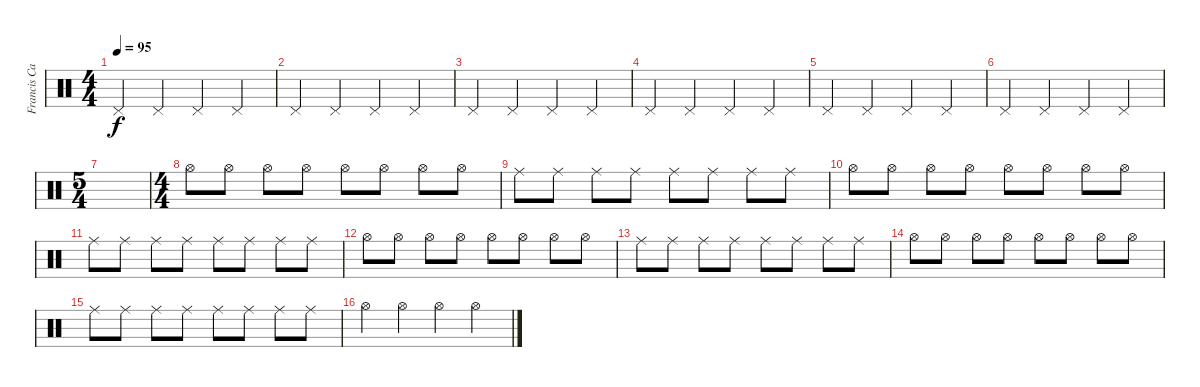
\track ("Francis Cassol 2" "Francis Ca") {instrument percussion}
\staff {score}
\articulation defaults
\ts (4 4)
\tempo 95
\clef neutral
\ks c "Pedal Hi-Hat (hit)".4{dy f} "Pedal Hi-Hat (hit)".4 "Pedal Hi-Hat (hit)".4 "Pedal Hi-Hat (hit)".4
|
"Pedal Hi-Hat (hit)".4 "Pedal Hi-Hat (hit)".4 "Pedal Hi-Hat (hit)".4 "Pedal Hi-Hat (hit)".4 |
"Pedal Hi-Hat (hit)".4 "Pedal Hi-Hat (hit)".4 "Pedal Hi-Hat (hit)".4 "Pedal Hi-Hat (hit)".4 |
"Pedal Hi-Hat (hit)".4 "Pedal Hi-Hat (hit)".4 "Pedal Hi-Hat (hit)".4 "Pedal Hi-Hat (hit)".4 |
"Pedal Hi-Hat (hit)".4 "Pedal Hi-Hat (hit)".4 "Pedal Hi-Hat (hit)".4 "Pedal Hi-Hat (hit)".4 |
"Pedal Hi-Hat (hit)".4 "Pedal Hi-Hat (hit)".4 "Pedal Hi-Hat (hit)".4 "Pedal Hi-Hat (hit)".4 |
\ts (5 4)
|
\ts (4 4)
"Hi-Hat (open)".8 "Hi-Hat (open)".8 "Hi-Hat (open)".8 "Hi-Hat (open)".8 "Hi-Hat (open)".8 "Hi-Hat (open)".8 "Hi-Hat (open)".8 "Hi-Hat (open)".8 |
"Ride (middle)".8 "Ride (middle)".8 "Ride (middle)".8 "Ride (middle)".8 "Ride (middle)".8 "Ride (middle)".8 "Ride (middle)".8 "Ride (middle)".8 |
"Hi-Hat (open)".8 "Hi-Hat (open)".8 "Hi-Hat (open)".8 "Hi-Hat (open)".8 "Hi-Hat (open)".8 "Hi-Hat (open)".8 "Hi-Hat (open)".8 "Hi-Hat (open)".8 |
"Ride (middle)".8 "Ride (middle)".8 "Ride (middle)".8 "Ride (middle)".8 "Ride (middle)".8 "Ride (middle)".8 "Ride (middle)".8 "Ride (middle)".8 |
"Hi-Hat (open)".8 "Hi-Hat (open)".8 "Hi-Hat (open)".8 "Hi-Hat (open)".8 "Hi-Hat (open)".8 "Hi-Hat (open)".8 "Hi-Hat (open)".8 "Hi-Hat (open)".8 |
"Ride (middle)".8 "Ride (middle)".8 "Ride (middle)".8 "Ride (middle)".8 "Ride (middle)".8 "Ride (middle)".8 "Ride (middle)".8 "Ride (middle)".8 |
"Hi-Hat (open)".8 "Hi-Hat (open)".8 "Hi-Hat (open)".8 "Hi-Hat (open)".8 "Hi-Hat (open)".8 "Hi-Hat (open)".8 "Hi-Hat (open)".8 "Hi-Hat (open)".8 |
"Ride (middle)".8 "Ride (middle)".8 "Ride (middle)".8 "Ride (middle)".8 "Ride (middle)".8 "Ride (middle)".8 "Ride (middle)".8 "Ride (middle)".8 |
"Hi-Hat (open)".4 "Hi-Hat (open)".4 "Hi-Hat (open)".4 "Hi-Hat (open)".4
